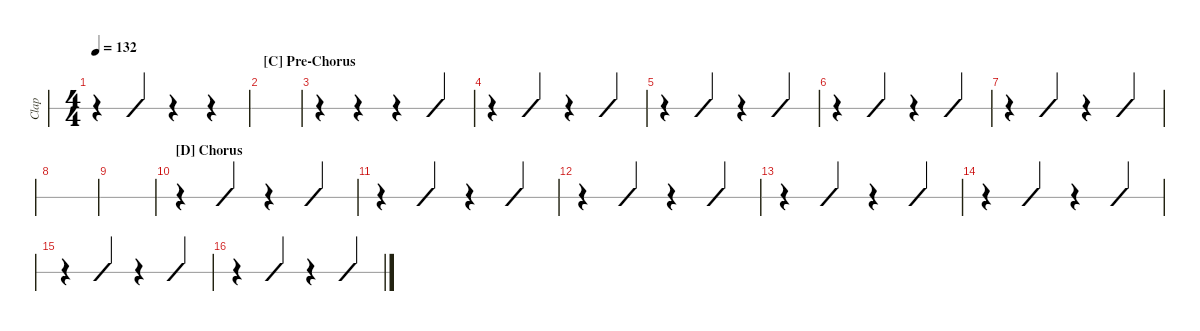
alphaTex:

\defaultSystemsLayout 4
\hideDynamics
\bracketExtendMode nobrackets
\otherSystemsTrackNameOrientation horizontal
\track ("Hand Clap" "Clap") {instrument percussion}
\staff {slash}
\articulation defaults
\ts (4 4)
\tempo 132
\clef neutral
\ks eb
r.4{dy mf} "Kick (hit)".4 r.4 r.4 |
\section ("C" "Pre-Chorus")
|
r.4 r.4 r.4 "Kick (hit)".4 |
r.4 "Kick (hit)".4 r.4 "Kick (hit)".4 |
r.4 "Kick (hit)".4 r.4 "Kick (hit)".4 |
r.4 "Kick (hit)".4 r.4 "Kick (hit)".4 |
r.4 "Kick (hit)".4 r.4 "Kick (hit)".4 |
|
|
\section ("D" "Chorus")
r.4 "Kick (hit)".4 r.4 "Kick (hit)".4 |
r.4 "Kick (hit)".4 r.4 "Kick (hit)".4 |
r.4 "Kick (hit)".4 r.4 "Kick (hit)".4 |
r.4 "Kick (hit)".4 r.4 "Kick (hit)".4 |
r.4 "Kick (hit)".4 r.4 "Kick (hit)".4 |
r.4 "Kick (hit)".4 r.4 "Kick (hit)".4 |
r.4 "Kick (hit)".4 r.4 "Kick (hit)".4
